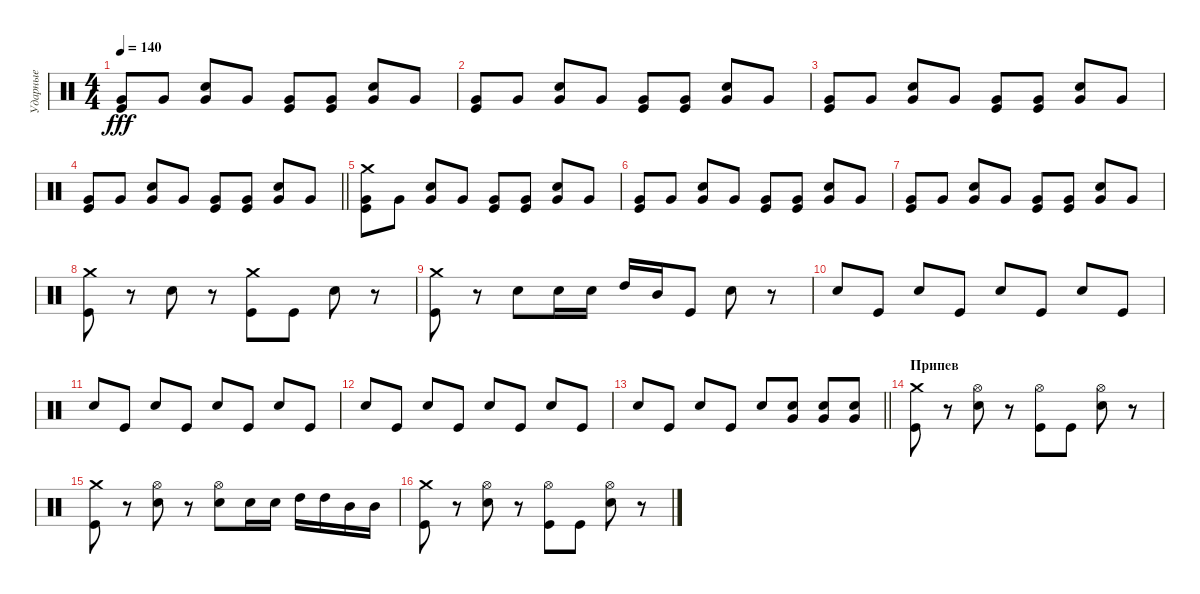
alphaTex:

\track ("Ударные" "Ударные") {instrument percussion}
\staff {score}
\articulation defaults
\ts (4 4)
\tempo 140
\clef neutral
\ks c
("Kick (hit)" "Very Low Tom (hit)").8{dy fff} "Very Low Tom (hit)".8 ("Electric Snare (hit)" "Very Low Tom (hit)").8 "Very Low Tom (hit)".8 ("Kick (hit)" "Very Low Tom (hit)").8 ("Kick (hit)" "Very Low Tom (hit)").8 ("Electric Snare (hit)" "Very Low Tom (hit)").8 "Very Low Tom (hit)".8 |
("Kick (hit)" "Very Low Tom (hit)").8 "Very Low Tom (hit)".8 ("Electric Snare (hit)" "Very Low Tom (hit)").8 "Very Low Tom (hit)".8 ("Kick (hit)" "Very Low Tom (hit)").8 ("Kick (hit)" "Very Low Tom (hit)").8 ("Electric Snare (hit)" "Very Low Tom (hit)").8 "Very Low Tom (hit)".8 |
("Kick (hit)" "Very Low Tom (hit)").8 "Very Low Tom (hit)".8 ("Electric Snare (hit)" "Very Low Tom (hit)").8 "Very Low Tom (hit)".8 ("Kick (hit)" "Very Low Tom (hit)").8 ("Kick (hit)" "Very Low Tom (hit)").8 ("Electric Snare (hit)" "Very Low Tom (hit)").8 "Very Low Tom (hit)".8 |
\barLineRight lightlight
("Kick (hit)" "Very Low Tom (hit)").8 "Very Low Tom (hit)".8 ("Electric Snare (hit)" "Very Low Tom (hit)").8 "Very Low Tom (hit)".8 ("Kick (hit)" "Very Low Tom (hit)").8 ("Kick (hit)" "Very Low Tom (hit)").8 ("Electric Snare (hit)" "Very Low Tom (hit)").8 "Very Low Tom (hit)".8 |
("Crash medium (hit)" "Kick (hit)" "Very Low Tom (hit)").8 "Very Low Tom (hit)".8 ("Electric Snare (hit)" "Very Low Tom (hit)").8 "Very Low Tom (hit)".8 ("Kick (hit)" "Very Low Tom (hit)").8 ("Kick (hit)" "Very Low Tom (hit)").8 ("Electric Snare (hit)" "Very Low Tom (hit)").8 "Very Low Tom (hit)".8 |
("Kick (hit)" "Very Low Tom (hit)").8 "Very Low Tom (hit)".8 ("Electric Snare (hit)" "Very Low Tom (hit)").8 "Very Low Tom (hit)".8 ("Kick (hit)" "Very Low Tom (hit)").8 ("Kick (hit)" "Very Low Tom (hit)").8 ("Electric Snare (hit)" "Very Low Tom (hit)").8 "Very Low Tom (hit)".8 |
("Kick (hit)" "Very Low Tom (hit)").8 "Very Low Tom (hit)".8 ("Electric Snare (hit)" "Very Low Tom (hit)").8 "Very Low Tom (hit)".8 ("Kick (hit)" "Very Low Tom (hit)").8 ("Kick (hit)" "Very Low Tom (hit)").8 ("Electric Snare (hit)" "Very Low Tom (hit)").8 "Very Low Tom (hit)".8 |
("Crash medium (hit)" "Kick (hit)").8 r.8 "Electric Snare (hit)".8 r.8 ("Crash medium (hit)" "Kick (hit)").8 "Kick (hit)".8 "Electric Snare (hit)".8 r.8 |
("Crash medium (hit)" "Kick (hit)").8 r.8 "Electric Snare (hit)".8 "Electric Snare (hit)".16 "Electric Snare (hit)".16 "High Tom (hit)".16 "Mid Tom (hit)".16 "Kick (hit)".8 "Electric Snare (hit)".8 r.8 |
"Electric Snare (hit)".8 "Kick (hit)".8 "Electric Snare (hit)".8 "Kick (hit)".8 "Electric Snare (hit)".8 "Kick (hit)".8 "Electric Snare (hit)".8 "Kick (hit)".8 |
"Electric Snare (hit)".8 "Kick (hit)".8 "Electric Snare (hit)".8 "Kick (hit)".8 "Electric Snare (hit)".8 "Kick (hit)".8 "Electric Snare (hit)".8 "Kick (hit)".8 |
"Electric Snare (hit)".8 "Kick (hit)".8 "Electric Snare (hit)".8 "Kick (hit)".8 "Electric Snare (hit)".8 "Kick (hit)".8 "Electric Snare (hit)".8 "Kick (hit)".8 |
\barLineRight lightlight "Electric Snare (hit)".8 "Kick (hit)".8 "Electric Snare (hit)".8 "Kick (hit)".8 "Electric Snare (hit)".8
("Electric Snare (hit)" "Very Low Tom (hit)").8 ("Electric Snare (hit)" "Very Low Tom (hit)").8 ("Electric Snare (hit)" "Very Low Tom (hit)").8 |
\section ("" "Припев")
("Crash medium (hit)" "Kick (hit)").8 r.8 ("Hi-Hat (open)" "Electric Snare (hit)").8 r.8 ("Hi-Hat (open)" "Kick (hit)").8 "Kick (hit)".8 ("Hi-Hat (open)" "Electric Snare (hit)").8 r.8 |
("Crash medium (hit)" "Kick (hit)").8 r.8 ("Hi-Hat (open)" "Electric Snare (hit)").8 r.8 ("Hi-Hat (open)" "Electric Snare (hit)").8 "Electric Snare (hit)".16 "Electric Snare (hit)".16 "High Tom (hit)".16 "High Tom (hit)".16 "Mid Tom (hit)".16 "Mid Tom (hit)".16 |
("Crash medium (hit)" "Kick (hit)").8 r.8 ("Hi-Hat (open)" "Electric Snare (hit)").8 r.8 ("Hi-Hat (open)" "Kick (hit)").8 "Kick (hit)".8 ("Hi-Hat (open)" "Electric Snare (hit)").8 r.8
